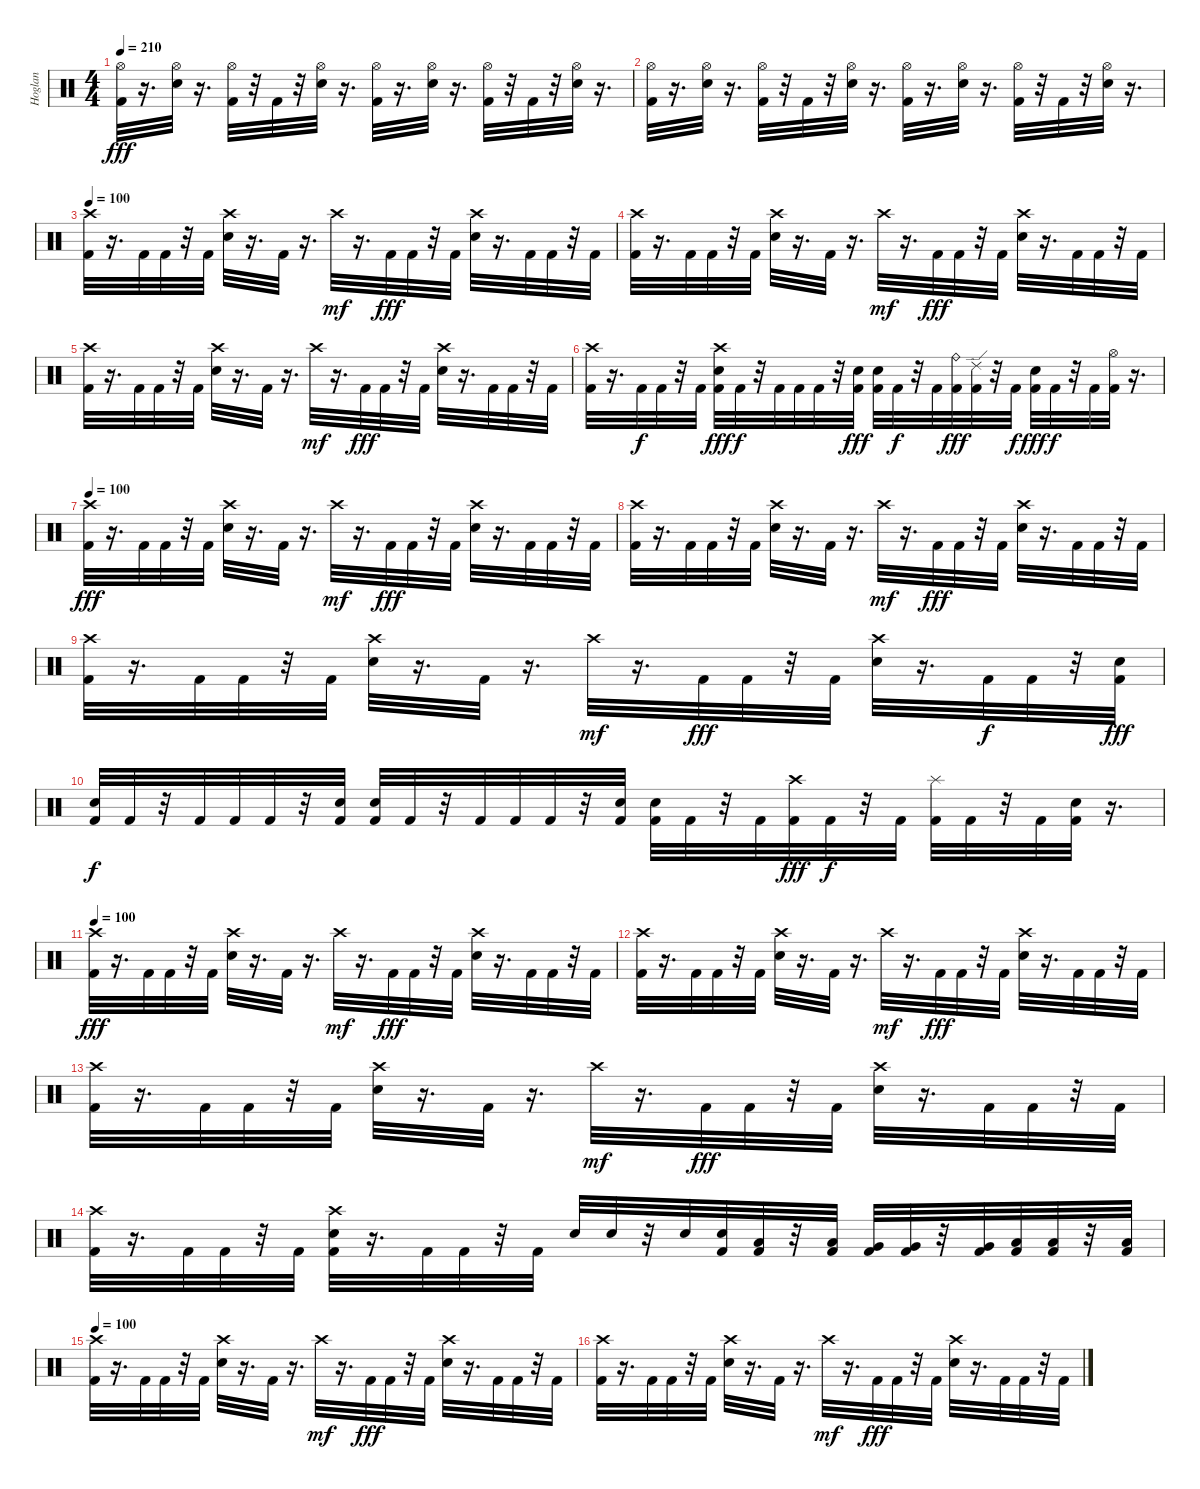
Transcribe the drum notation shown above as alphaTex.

\track ("Hoglan" "Hoglan") {instrument percussion}
\staff {score}
\articulation defaults
\ts (4 4)
\tempo 210
\clef neutral
\ks c
("Hi-Hat (open)" "Kick (hit) 2").32{dy fff} r.16{d} ("Hi-Hat (open)" "Electric Snare (hit)").32 r.16{d} ("Hi-Hat (open)" "Kick (hit) 2").32 r.32 "Kick (hit) 2".32 r.32 ("Hi-Hat (open)" "Electric Snare (hit)").32 r.16{d} ("Hi-Hat (open)" "Kick (hit) 2").32 r.16{d} ("Hi-Hat (open)" "Electric Snare (hit)").32 r.16{d} ("Hi-Hat (open)" "Kick (hit) 2").32 r.32 "Kick (hit) 2".32 r.32 ("Hi-Hat (open)" "Electric Snare (hit)").32 r.16{d} |
("Hi-Hat (open)" "Kick (hit) 2").32 r.16{d} ("Hi-Hat (open)" "Electric Snare (hit)").32 r.16{d} ("Hi-Hat (open)" "Kick (hit) 2").32 r.32 "Kick (hit) 2".32 r.32 ("Hi-Hat (open)" "Electric Snare (hit)").32 r.16{d} ("Hi-Hat (open)" "Kick (hit) 2").32 r.16{d} ("Hi-Hat (open)" "Electric Snare (hit)").32 r.16{d} ("Hi-Hat (open)" "Kick (hit) 2").32 r.32 "Kick (hit) 2".32 r.32 ("Hi-Hat (open)" "Electric Snare (hit)").32 r.16{d} |
\tempo 100
("Crash high (hit)" "Kick (hit) 2").32 r.16{d} "Kick (hit) 2".32 "Kick (hit) 2".32 r.32 "Kick (hit) 2".32 ("Crash high (hit)" "Electric Snare (hit)").32 r.16{d} "Kick (hit) 2".32 r.16{d} "Crash high (hit)".32{dy mf} r.16{d} "Kick (hit) 2".32{dy fff} "Kick (hit) 2".32 r.32 "Kick (hit) 2".32 ("Crash high (hit)" "Electric Snare (hit)").32 r.16{d} "Kick (hit) 2".32 "Kick (hit) 2".32 r.32 "Kick (hit) 2".32 |
("Crash high (hit)" "Kick (hit) 2").32 r.16{d} "Kick (hit) 2".32 "Kick (hit) 2".32 r.32 "Kick (hit) 2".32 ("Crash high (hit)" "Electric Snare (hit)").32 r.16{d} "Kick (hit) 2".32 r.16{d} "Crash high (hit)".32{dy mf} r.16{d} "Kick (hit) 2".32{dy fff} "Kick (hit) 2".32 r.32 "Kick (hit) 2".32 ("Crash high (hit)" "Electric Snare (hit)").32 r.16{d} "Kick (hit) 2".32 "Kick (hit) 2".32 r.32 "Kick (hit) 2".32 |
("Crash high (hit)" "Kick (hit) 2").32 r.16{d} "Kick (hit) 2".32 "Kick (hit) 2".32 r.32 "Kick (hit) 2".32 ("Crash high (hit)" "Electric Snare (hit)").32 r.16{d} "Kick (hit) 2".32 r.16{d} "Crash high (hit)".32{dy mf} r.16{d} "Kick (hit) 2".32{dy fff} "Kick (hit) 2".32 r.32 "Kick (hit) 2".32 ("Crash high (hit)" "Electric Snare (hit)").32 r.16{d} "Kick (hit) 2".32 "Kick (hit) 2".32 r.32 "Kick (hit) 2".32 |
("Crash high (hit)" "Kick (hit) 2").32 r.16{d} "Kick (hit) 2".32{dy f} "Kick (hit) 2".32 r.32 "Kick (hit) 2".32 ("Crash high (hit)" "Electric Snare (hit)" "Kick (hit) 2").32{dy fff} "Kick (hit) 2".32{dy f} r.32 "Kick (hit) 2".32 "Kick (hit) 2".32 "Kick (hit) 2".32 r.32 ("Electric Snare (hit)" "Kick (hit) 2").32{dy fff} ("Electric Snare (hit)" "Kick (hit) 2").32 "Kick (hit) 2".32{dy f} r.32 "Kick (hit) 2".32 ("Ride (bell)" "Kick (hit) 2").32{dy fff} ("Ride (edge) 2" "Kick (hit) 2").32 r.32 "Kick (hit) 2".32{dy f} ("Electric Snare (hit)" "Kick (hit) 2").32{dy fff} "Kick (hit) 2".32{dy f} r.32 "Kick (hit) 2".32 ("Hi-Hat (open)" "Kick (hit) 2").32 r.16{d} |
\tempo 100
("Crash high (hit)" "Kick (hit) 2").32{dy fff} r.16{d} "Kick (hit) 2".32 "Kick (hit) 2".32 r.32 "Kick (hit) 2".32 ("Crash high (hit)" "Electric Snare (hit)").32 r.16{d} "Kick (hit) 2".32 r.16{d} "Crash high (hit)".32{dy mf} r.16{d} "Kick (hit) 2".32{dy fff} "Kick (hit) 2".32 r.32 "Kick (hit) 2".32 ("Crash high (hit)" "Electric Snare (hit)").32 r.16{d} "Kick (hit) 2".32 "Kick (hit) 2".32 r.32 "Kick (hit) 2".32 |
("Crash high (hit)" "Kick (hit) 2").32 r.16{d} "Kick (hit) 2".32 "Kick (hit) 2".32 r.32 "Kick (hit) 2".32 ("Crash high (hit)" "Electric Snare (hit)").32 r.16{d} "Kick (hit) 2".32 r.16{d} "Crash high (hit)".32{dy mf} r.16{d} "Kick (hit) 2".32{dy fff} "Kick (hit) 2".32 r.32 "Kick (hit) 2".32 ("Crash high (hit)" "Electric Snare (hit)").32 r.16{d} "Kick (hit) 2".32 "Kick (hit) 2".32 r.32 "Kick (hit) 2".32 |
("Crash high (hit)" "Kick (hit) 2").32 r.16{d} "Kick (hit) 2".32 "Kick (hit) 2".32 r.32 "Kick (hit) 2".32 ("Crash high (hit)" "Electric Snare (hit)").32 r.16{d} "Kick (hit) 2".32 r.16{d} "Crash high (hit)".32{dy mf} r.16{d} "Kick (hit) 2".32{dy fff} "Kick (hit) 2".32 r.32 "Kick (hit) 2".32 ("Crash high (hit)" "Electric Snare (hit)").32 r.16{d} "Kick (hit) 2".32{dy f} "Kick (hit) 2".32 r.32 ("Electric Snare (hit)" "Kick (hit) 2").32{dy fff} |
("Electric Snare (hit)" "Kick (hit) 2").32{dy f} "Kick (hit) 2".32 r.32 "Kick (hit) 2".32 "Kick (hit) 2".32 "Kick (hit) 2".32 r.32 ("Electric Snare (hit)" "Kick (hit) 2").32 ("Electric Snare (hit)" "Kick (hit) 2").32 "Kick (hit) 2".32 r.32 "Kick (hit) 2".32 "Kick (hit) 2".32 "Kick (hit) 2".32 r.32 ("Electric Snare (hit)" "Kick (hit) 2").32 ("Electric Snare (hit)" "Kick (hit) 2").32 "Kick (hit) 2".32 r.32 "Kick (hit) 2".32 ("Crash high (hit)" "Kick (hit) 2").32{dy fff} "Kick (hit) 2".32{dy f} r.32 "Kick (hit) 2".32 ("Splash (hit)" "Kick (hit) 2").32 "Kick (hit) 2".32 r.32 "Kick (hit) 2".32 ("Electric Snare (hit)" "Kick (hit) 2").32 r.16{d} |
\tempo 100
("Crash high (hit)" "Kick (hit) 2").32{dy fff} r.16{d} "Kick (hit) 2".32 "Kick (hit) 2".32 r.32 "Kick (hit) 2".32 ("Crash high (hit)" "Electric Snare (hit)").32 r.16{d} "Kick (hit) 2".32 r.16{d} "Crash high (hit)".32{dy mf} r.16{d} "Kick (hit) 2".32{dy fff} "Kick (hit) 2".32 r.32 "Kick (hit) 2".32 ("Crash high (hit)" "Electric Snare (hit)").32 r.16{d} "Kick (hit) 2".32 "Kick (hit) 2".32 r.32 "Kick (hit) 2".32 |
("Crash high (hit)" "Kick (hit) 2").32 r.16{d} "Kick (hit) 2".32 "Kick (hit) 2".32 r.32 "Kick (hit) 2".32 ("Crash high (hit)" "Electric Snare (hit)").32 r.16{d} "Kick (hit) 2".32 r.16{d} "Crash high (hit)".32{dy mf} r.16{d} "Kick (hit) 2".32{dy fff} "Kick (hit) 2".32 r.32 "Kick (hit) 2".32 ("Crash high (hit)" "Electric Snare (hit)").32 r.16{d} "Kick (hit) 2".32 "Kick (hit) 2".32 r.32 "Kick (hit) 2".32 |
("Crash high (hit)" "Kick (hit) 2").32 r.16{d} "Kick (hit) 2".32 "Kick (hit) 2".32 r.32 "Kick (hit) 2".32 ("Crash high (hit)" "Electric Snare (hit)").32 r.16{d} "Kick (hit) 2".32 r.16{d} "Crash high (hit)".32{dy mf} r.16{d} "Kick (hit) 2".32{dy fff} "Kick (hit) 2".32 r.32 "Kick (hit) 2".32 ("Crash high (hit)" "Electric Snare (hit)").32 r.16{d} "Kick (hit) 2".32 "Kick (hit) 2".32 r.32 "Kick (hit) 2".32 |
("Crash high (hit)" "Kick (hit) 2").32 r.16{d} "Kick (hit) 2".32 "Kick (hit) 2".32 r.32 "Kick (hit) 2".32 ("Crash high (hit)" "Electric Snare (hit)" "Kick (hit) 2").32 r.16{d} "Kick (hit) 2".32 "Kick (hit) 2".32 r.32 "Kick (hit) 2".32 "Electric Snare (hit)".32 "Electric Snare (hit)".32 r.32 "Electric Snare (hit)".32 ("Electric Snare (hit)" "Kick (hit) 2").32 ("Low Tom (hit)" "Kick (hit) 2").32 r.32 ("Low Tom (hit)" "Kick (hit) 2").32 ("Very Low Tom (hit)" "Kick (hit) 2").32 ("Very Low Tom (hit)" "Kick (hit) 2").32 r.32 ("Very Low Tom (hit)" "Kick (hit) 2").32 ("Low Floor Tom (hit)" "Kick (hit) 2").32 ("Low Floor Tom (hit)" "Kick (hit) 2").32 r.32 ("Low Floor Tom (hit)" "Kick (hit) 2").32 |
\tempo 100
("Crash high (hit)" "Kick (hit) 2").32 r.16{d} "Kick (hit) 2".32 "Kick (hit) 2".32 r.32 "Kick (hit) 2".32 ("Crash high (hit)" "Electric Snare (hit)").32 r.16{d} "Kick (hit) 2".32 r.16{d} "Crash high (hit)".32{dy mf} r.16{d} "Kick (hit) 2".32{dy fff} "Kick (hit) 2".32 r.32 "Kick (hit) 2".32 ("Crash high (hit)" "Electric Snare (hit)").32 r.16{d} "Kick (hit) 2".32 "Kick (hit) 2".32 r.32 "Kick (hit) 2".32 |
("Crash high (hit)" "Kick (hit) 2").32 r.16{d} "Kick (hit) 2".32 "Kick (hit) 2".32 r.32 "Kick (hit) 2".32 ("Crash high (hit)" "Electric Snare (hit)").32 r.16{d} "Kick (hit) 2".32 r.16{d} "Crash high (hit)".32{dy mf} r.16{d} "Kick (hit) 2".32{dy fff} "Kick (hit) 2".32 r.32 "Kick (hit) 2".32 ("Crash high (hit)" "Electric Snare (hit)").32 r.16{d} "Kick (hit) 2".32 "Kick (hit) 2".32 r.32 "Kick (hit) 2".32
